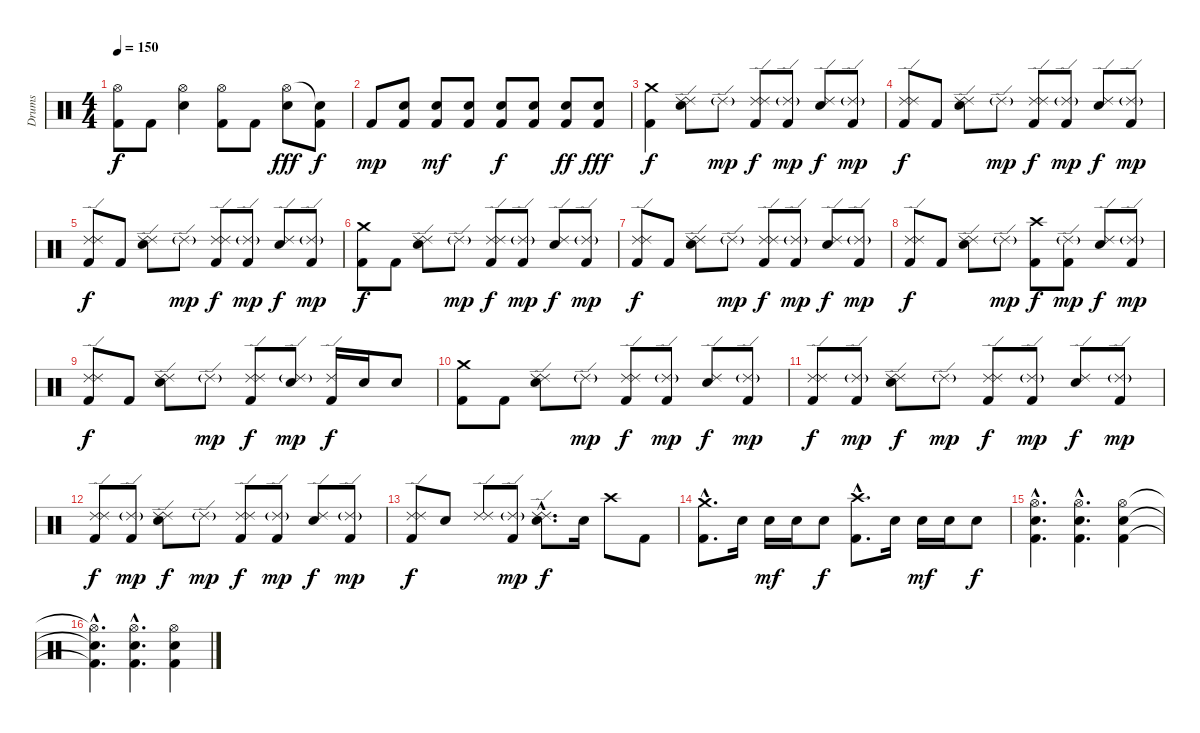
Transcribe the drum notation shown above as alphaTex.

\track ("Drums" "Drums") {instrument percussion}
\staff {score}
\articulation defaults
\ts (4 4)
\tempo 150
\clef neutral
\ks c
("Hi-Hat (open)" "Kick (hit) 2").8{dy f} "Kick (hit) 2".8 ("Hi-Hat (open)" "Electric Snare (hit)").4 ("Hi-Hat (open)" "Kick (hit) 2").8 "Kick (hit) 2".8 ("Hi-Hat (open)" "Electric Snare (hit)").8{dy fff} ("Snare (hit)"{t} "Kick (hit) 2").8{dy f} |
"Kick (hit) 2".8{dy mp} ("Electric Snare (hit)" "Kick (hit) 2").8 ("Electric Snare (hit)" "Kick (hit) 2").8{dy mf} ("Electric Snare (hit)" "Kick (hit) 2").8 ("Electric Snare (hit)" "Kick (hit) 2").8{dy f} ("Electric Snare (hit)" "Kick (hit) 2").8 ("Electric Snare (hit)" "Kick (hit) 2").8{dy ff} ("Electric Snare (hit)" "Kick (hit) 2").8{dy fff} |
("Crash medium (hit)" "Kick (hit) 2").4{dy f} ("Ride (edge) 2" "Ride (edge) 2" "Electric Snare (hit)").8 "Ride (edge) 2"{g}.8{dy mp} ("Ride (edge) 2" "Ride (edge) 2" "Kick (hit) 2").8{dy f} ("Ride (edge) 2"{g} "Kick (hit) 2").8{dy mp} ("Ride (edge) 2" "Electric Snare (hit)").8{dy f} ("Ride (edge) 2"{g} "Kick (hit) 2").8{dy mp} |
("Ride (edge) 2" "Ride (edge) 2" "Kick (hit) 2").8{dy f} "Kick (hit) 2".8 ("Ride (edge) 2" "Ride (edge) 2" "Electric Snare (hit)").8 "Ride (edge) 2"{g}.8{dy mp} ("Ride (edge) 2" "Ride (edge) 2" "Kick (hit) 2").8{dy f} ("Ride (edge) 2"{g} "Kick (hit) 2").8{dy mp} ("Ride (edge) 2" "Electric Snare (hit)").8{dy f} ("Ride (edge) 2"{g} "Kick (hit) 2").8{dy mp} |
("Ride (edge) 2" "Ride (edge) 2" "Kick (hit) 2").8{dy f} "Kick (hit) 2".8 ("Ride (edge) 2" "Ride (edge) 2" "Electric Snare (hit)").8 "Ride (edge) 2"{g}.8{dy mp} ("Ride (edge) 2" "Ride (edge) 2" "Kick (hit) 2").8{dy f} ("Ride (edge) 2"{g} "Kick (hit) 2").8{dy mp} ("Ride (edge) 2" "Electric Snare (hit)").8{dy f} ("Ride (edge) 2"{g} "Kick (hit) 2").8{dy mp} |
("Crash medium (hit)" "Kick (hit) 2").8{dy f} "Kick (hit) 2".8 ("Ride (edge) 2" "Ride (edge) 2" "Electric Snare (hit)").8 "Ride (edge) 2"{g}.8{dy mp} ("Ride (edge) 2" "Ride (edge) 2" "Kick (hit) 2").8{dy f} ("Ride (edge) 2"{g} "Kick (hit) 2").8{dy mp} ("Ride (edge) 2" "Electric Snare (hit)").8{dy f} ("Ride (edge) 2"{g} "Kick (hit) 2").8{dy mp} |
("Ride (edge) 2" "Ride (edge) 2" "Kick (hit) 2").8{dy f} "Kick (hit) 2".8 ("Ride (edge) 2" "Ride (edge) 2" "Electric Snare (hit)").8 "Ride (edge) 2"{g}.8{dy mp} ("Ride (edge) 2" "Ride (edge) 2" "Kick (hit) 2").8{dy f} ("Ride (edge) 2"{g} "Kick (hit) 2").8{dy mp} ("Ride (edge) 2" "Electric Snare (hit)").8{dy f} ("Ride (edge) 2"{g} "Kick (hit) 2").8{dy mp} |
("Ride (edge) 2" "Ride (edge) 2" "Kick (hit) 2").8{dy f} "Kick (hit) 2".8 ("Ride (edge) 2" "Ride (edge) 2" "Electric Snare (hit)").8 "Ride (edge) 2"{g}.8{dy mp} ("Crash high (hit)" "Kick (hit) 2").8{dy f} ("Ride (edge) 2"{g} "Kick (hit) 2").8{dy mp} ("Ride (edge) 2" "Electric Snare (hit)").8{dy f} ("Ride (edge) 2"{g} "Kick (hit) 2").8{dy mp} |
("Ride (edge) 2" "Ride (edge) 2" "Kick (hit) 2").8{dy f} "Kick (hit) 2".8 ("Ride (edge) 2" "Ride (edge) 2" "Electric Snare (hit)").8 "Ride (edge) 2"{g}.8{dy mp} ("Ride (edge) 2" "Ride (edge) 2" "Kick (hit) 2").8{dy f} ("Ride (edge) 2"{g} "Electric Snare (hit)").8{dy mp} ("Ride (edge) 2" "Kick (hit) 2").16{dy f} "Electric Snare (hit)".16 "Electric Snare (hit)".8 |
("Crash medium (hit)" "Kick (hit) 2").8 "Kick (hit) 2".8 ("Ride (edge) 2" "Ride (edge) 2" "Electric Snare (hit)").8 "Ride (edge) 2"{g}.8{dy mp} ("Ride (edge) 2" "Ride (edge) 2" "Kick (hit) 2").8{dy f} ("Ride (edge) 2"{g} "Kick (hit) 2").8{dy mp} ("Ride (edge) 2" "Electric Snare (hit)").8{dy f} ("Ride (edge) 2"{g} "Kick (hit) 2").8{dy mp} |
("Ride (edge) 2" "Ride (edge) 2" "Kick (hit) 2").8{dy f} ("Ride (edge) 2"{g} "Kick (hit) 2").8{dy mp} ("Ride (edge) 2" "Ride (edge) 2" "Electric Snare (hit)").8{dy f} "Ride (edge) 2"{g}.8{dy mp} ("Ride (edge) 2" "Ride (edge) 2" "Kick (hit) 2").8{dy f} ("Ride (edge) 2"{g} "Kick (hit) 2").8{dy mp} ("Ride (edge) 2" "Electric Snare (hit)").8{dy f} ("Ride (edge) 2"{g} "Kick (hit) 2").8{dy mp} |
("Ride (edge) 2" "Ride (edge) 2" "Kick (hit) 2").8{dy f} ("Ride (edge) 2"{g} "Kick (hit) 2").8{dy mp} ("Ride (edge) 2" "Ride (edge) 2" "Electric Snare (hit)").8{dy f} "Ride (edge) 2"{g}.8{dy mp} ("Ride (edge) 2" "Ride (edge) 2" "Kick (hit) 2").8{dy f} ("Ride (edge) 2"{g} "Kick (hit) 2").8{dy mp} ("Ride (edge) 2" "Electric Snare (hit)").8{dy f} ("Ride (edge) 2"{g} "Kick (hit) 2").8{dy mp} |
("Ride (edge) 2" "Ride (edge) 2" "Kick (hit) 2").8{dy f} "Electric Snare (hit)".8 ("Ride (edge) 2" "Ride (edge) 2").8 ("Ride (edge) 2"{g} "Kick (hit) 2").8{dy mp} ("Ride (edge) 2"{hac} "Ride (edge) 2"{hac} "Electric Snare (hit)"{hac}).8{d dy f} "Electric Snare (hit)".16 "Crash high (hit)".8 "Kick (hit) 2".8 |
("Crash medium (hit)"{hac} "Kick (hit) 2"{hac}).8{d} "Electric Snare (hit)".16 "Electric Snare (hit)".16{dy mf} "Electric Snare (hit)".16 "Electric Snare (hit)".8{dy f} ("Crash high (hit)"{hac} "Kick (hit) 2"{hac}).8{d} "Electric Snare (hit)".16 "Electric Snare (hit)".16{dy mf} "Electric Snare (hit)".16 "Electric Snare (hit)".8{dy f} |
("Hi-Hat (open)"{hac} "Electric Snare (hit)"{hac} "Kick (hit) 2"{hac}).4{d} ("Hi-Hat (open)"{hac} "Electric Snare (hit)"{hac} "Kick (hit) 2"{hac}).4{d} ("Hi-Hat (open)" "Electric Snare (hit)" "Kick (hit) 2").4 |
("Hi-Hat (open)"{hac t} "Electric Snare (hit)"{hac t} "Kick (hit) 2"{hac t}).4{d} ("Hi-Hat (open)"{hac} "Electric Snare (hit)"{hac} "Kick (hit) 2"{hac}).4{d} ("Hi-Hat (open)" "Electric Snare (hit)" "Kick (hit) 2").4
